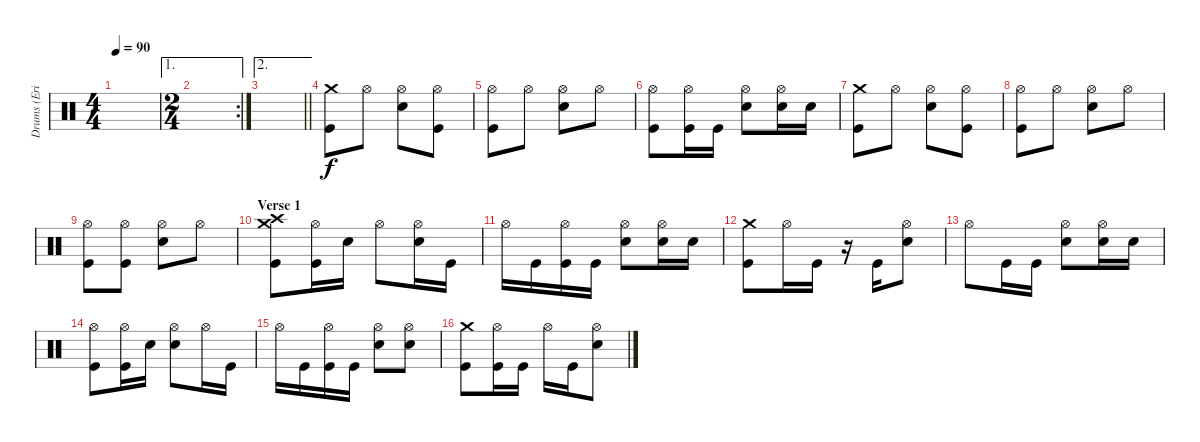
\track ("Drums (Eric Singer)" "Drums (Eri") {instrument percussion}
\staff {score}
\articulation defaults
\ts (4 4)
\tempo 90
\clef neutral
\ks c
|
\ae 1
\rc 2
\ts (2 4)
|
\ae 2
\barLineRight lightlight
|
("Crash medium (hit)" "Kick (hit)").8 "Hi-Hat (open)".8 ("Hi-Hat (open)" "Electric Snare (hit)").8 ("Hi-Hat (open)" "Kick (hit)").8 |
("Hi-Hat (open)" "Kick (hit)").8 "Hi-Hat (open)".8 ("Hi-Hat (open)" "Electric Snare (hit)").8 "Hi-Hat (open)".8 |
("Hi-Hat (open)" "Kick (hit)").8 ("Hi-Hat (open)" "Kick (hit)").16 "Kick (hit)".16 ("Hi-Hat (open)" "Electric Snare (hit)").8 ("Hi-Hat (open)" "Electric Snare (hit)").16 "Electric Snare (hit)".16 |
("Crash medium (hit)" "Kick (hit)").8 "Hi-Hat (open)".8 ("Hi-Hat (open)" "Electric Snare (hit)").8 ("Hi-Hat (open)" "Kick (hit)").8 |
("Hi-Hat (open)" "Kick (hit)").8 "Hi-Hat (open)".8 ("Hi-Hat (open)" "Electric Snare (hit)").8 "Hi-Hat (open)".8 |
("Hi-Hat (open)" "Kick (hit)").8 ("Hi-Hat (open)" "Kick (hit)").8 ("Hi-Hat (open)" "Electric Snare (hit)").8 "Hi-Hat (open)".8 |
\section ("" "Verse 1")
("Crash high (hit)" "Crash medium (hit)" "Kick (hit)").8 ("Hi-Hat (open)" "Kick (hit)").16 "Electric Snare (hit)".16 "Hi-Hat (open)".8 ("Hi-Hat (open)" "Electric Snare (hit)").16 "Kick (hit)".16 |
"Hi-Hat (open)".16 "Kick (hit)".16 ("Hi-Hat (open)" "Kick (hit)").16 "Kick (hit)".16 ("Hi-Hat (open)" "Electric Snare (hit)").8 ("Hi-Hat (open)" "Electric Snare (hit)").16 "Electric Snare (hit)".16 |
("Crash medium (hit)" "Kick (hit)").8 "Hi-Hat (open)".16 "Kick (hit)".16 r.16 "Kick (hit)".16 ("Hi-Hat (open)" "Electric Snare (hit)").8 |
"Hi-Hat (open)".8 "Kick (hit)".16 "Kick (hit)".16 ("Hi-Hat (open)" "Electric Snare (hit)").8 ("Hi-Hat (open)" "Electric Snare (hit)").16 "Electric Snare (hit)".16 |
("Hi-Hat (open)" "Kick (hit)").8 ("Hi-Hat (open)" "Kick (hit)").16 "Electric Snare (hit)".16 ("Hi-Hat (open)" "Electric Snare (hit)").8 "Hi-Hat (open)".16 "Kick (hit)".16 |
"Hi-Hat (open)".16 "Kick (hit)".16 ("Hi-Hat (open)" "Kick (hit)").16 "Kick (hit)".16 ("Hi-Hat (open)" "Electric Snare (hit)").8 ("Hi-Hat (open)" "Electric Snare (hit)").8 |
("Crash medium (hit)" "Kick (hit)").8 ("Hi-Hat (open)" "Kick (hit)").16 "Kick (hit)".16 "Hi-Hat (open)".16 "Kick (hit)".16 ("Hi-Hat (open)" "Electric Snare (hit)").8
